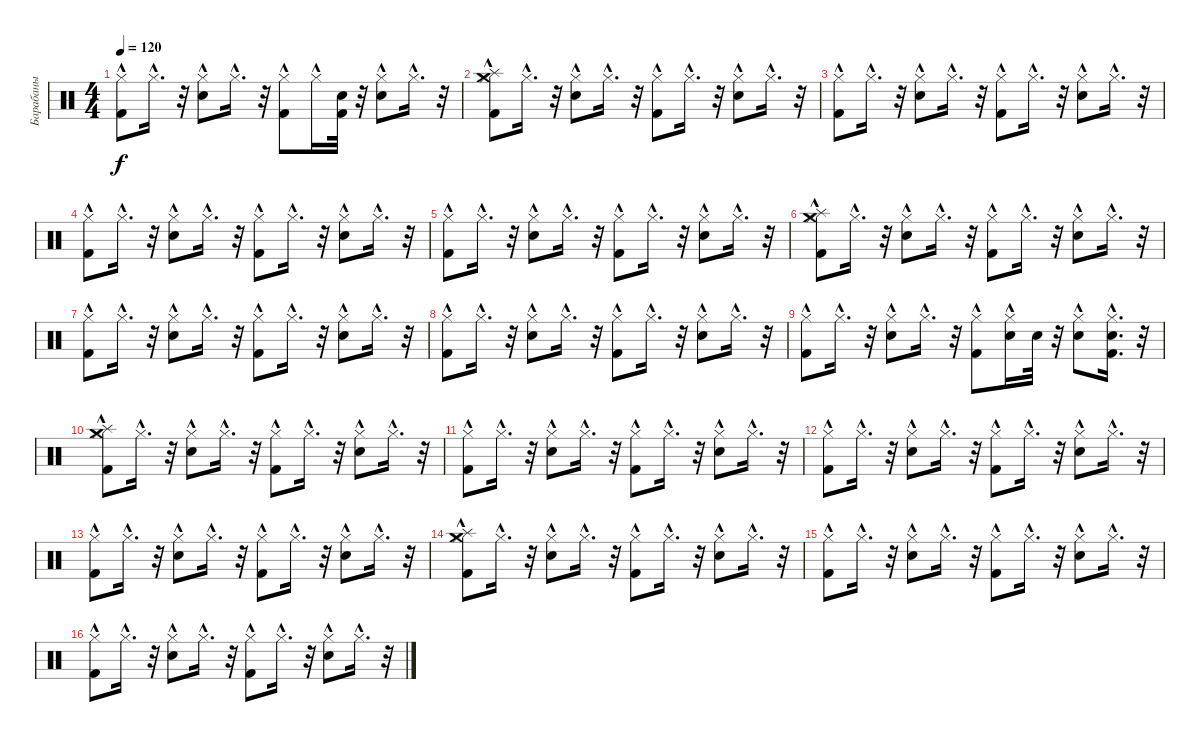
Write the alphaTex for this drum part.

\track ("Барабаны" "Барабаны") {instrument percussion}
\staff {score}
\articulation defaults
\ts (4 4)
\tempo 120
\clef neutral
\ks c
("Kick (hit) 2" "Hi-Hat (closed)"{hac}).8{dy f} "Hi-Hat (closed)"{hac}.16{d} r.32 ("Electric Snare (hit)" "Hi-Hat (closed)"{hac}).8 "Hi-Hat (closed)"{hac}.16{d} r.32 ("Kick (hit) 2" "Hi-Hat (closed)"{hac}).8 "Hi-Hat (closed)"{hac}.16 ("Electric Snare (hit)" "Kick (hit) 2").32 r.32 ("Electric Snare (hit)" "Hi-Hat (closed)"{hac}).8 "Hi-Hat (closed)"{hac}.16{d} r.32 |
("Crash medium (hit)" "Splash (hit)" "Kick (hit) 2" "Hi-Hat (closed)"{hac}).8 "Hi-Hat (closed)"{hac}.16{d} r.32 ("Electric Snare (hit)" "Hi-Hat (closed)"{hac}).8 "Hi-Hat (closed)"{hac}.16{d} r.32 ("Kick (hit) 2" "Hi-Hat (closed)"{hac}).8 "Hi-Hat (closed)"{hac}.16{d} r.32 ("Electric Snare (hit)" "Hi-Hat (closed)"{hac}).8 "Hi-Hat (closed)"{hac}.16{d} r.32 |
("Kick (hit) 2" "Hi-Hat (closed)"{hac}).8 "Hi-Hat (closed)"{hac}.16{d} r.32 ("Electric Snare (hit)" "Hi-Hat (closed)"{hac}).8 "Hi-Hat (closed)"{hac}.16{d} r.32 ("Kick (hit) 2" "Hi-Hat (closed)"{hac}).8 "Hi-Hat (closed)"{hac}.16{d} r.32 ("Electric Snare (hit)" "Hi-Hat (closed)"{hac}).8 "Hi-Hat (closed)"{hac}.16{d} r.32 |
("Kick (hit) 2" "Hi-Hat (closed)"{hac}).8 "Hi-Hat (closed)"{hac}.16{d} r.32 ("Electric Snare (hit)" "Hi-Hat (closed)"{hac}).8 "Hi-Hat (closed)"{hac}.16{d} r.32 ("Kick (hit) 2" "Hi-Hat (closed)"{hac}).8 "Hi-Hat (closed)"{hac}.16{d} r.32 ("Electric Snare (hit)" "Hi-Hat (closed)"{hac}).8 "Hi-Hat (closed)"{hac}.16{d} r.32 |
("Kick (hit) 2" "Hi-Hat (closed)"{hac}).8 "Hi-Hat (closed)"{hac}.16{d} r.32 ("Electric Snare (hit)" "Hi-Hat (closed)"{hac}).8 "Hi-Hat (closed)"{hac}.16{d} r.32 ("Kick (hit) 2" "Hi-Hat (closed)"{hac}).8 "Hi-Hat (closed)"{hac}.16{d} r.32 ("Electric Snare (hit)" "Hi-Hat (closed)"{hac}).8 "Hi-Hat (closed)"{hac}.16{d} r.32 |
("Crash medium (hit)" "Splash (hit)" "Kick (hit) 2" "Hi-Hat (closed)"{hac}).8 "Hi-Hat (closed)"{hac}.16{d} r.32 ("Electric Snare (hit)" "Hi-Hat (closed)"{hac}).8 "Hi-Hat (closed)"{hac}.16{d} r.32 ("Kick (hit) 2" "Hi-Hat (closed)"{hac}).8 "Hi-Hat (closed)"{hac}.16{d} r.32 ("Electric Snare (hit)" "Hi-Hat (closed)"{hac}).8 "Hi-Hat (closed)"{hac}.16{d} r.32 |
("Kick (hit) 2" "Hi-Hat (closed)"{hac}).8 "Hi-Hat (closed)"{hac}.16{d} r.32 ("Electric Snare (hit)" "Hi-Hat (closed)"{hac}).8 "Hi-Hat (closed)"{hac}.16{d} r.32 ("Kick (hit) 2" "Hi-Hat (closed)"{hac}).8 "Hi-Hat (closed)"{hac}.16{d} r.32 ("Electric Snare (hit)" "Hi-Hat (closed)"{hac}).8 "Hi-Hat (closed)"{hac}.16{d} r.32 |
("Kick (hit) 2" "Hi-Hat (closed)"{hac}).8 "Hi-Hat (closed)"{hac}.16{d} r.32 ("Electric Snare (hit)" "Hi-Hat (closed)"{hac}).8 "Hi-Hat (closed)"{hac}.16{d} r.32 ("Kick (hit) 2" "Hi-Hat (closed)"{hac}).8 "Hi-Hat (closed)"{hac}.16{d} r.32 ("Electric Snare (hit)" "Hi-Hat (closed)"{hac}).8 "Hi-Hat (closed)"{hac}.16{d} r.32 |
("Kick (hit) 2" "Hi-Hat (closed)"{hac}).8 "Hi-Hat (closed)"{hac}.16{d} r.32 ("Electric Snare (hit)" "Hi-Hat (closed)"{hac}).8 "Hi-Hat (closed)"{hac}.16{d} r.32 ("Kick (hit) 2" "Hi-Hat (closed)"{hac}).8 ("Electric Snare (hit)" "Hi-Hat (closed)"{hac}).16 "Snare (hit) 2".32 r.32 ("Electric Snare (hit)" "Hi-Hat (closed)"{hac}).8 ("Electric Snare (hit)" "Kick (hit) 2" "Hi-Hat (closed)"{hac}).16{d} r.32 |
("Crash medium (hit)" "Splash (hit)" "Kick (hit) 2" "Hi-Hat (closed)"{hac}).8 "Hi-Hat (closed)"{hac}.16{d} r.32 ("Electric Snare (hit)" "Hi-Hat (closed)"{hac}).8 "Hi-Hat (closed)"{hac}.16{d} r.32 ("Kick (hit) 2" "Hi-Hat (closed)"{hac}).8 "Hi-Hat (closed)"{hac}.16{d} r.32 ("Electric Snare (hit)" "Hi-Hat (closed)"{hac}).8 "Hi-Hat (closed)"{hac}.16{d} r.32 |
("Kick (hit) 2" "Hi-Hat (closed)"{hac}).8 "Hi-Hat (closed)"{hac}.16{d} r.32 ("Electric Snare (hit)" "Hi-Hat (closed)"{hac}).8 "Hi-Hat (closed)"{hac}.16{d} r.32 ("Kick (hit) 2" "Hi-Hat (closed)"{hac}).8 "Hi-Hat (closed)"{hac}.16{d} r.32 ("Electric Snare (hit)" "Hi-Hat (closed)"{hac}).8 "Hi-Hat (closed)"{hac}.16{d} r.32 |
("Kick (hit) 2" "Hi-Hat (closed)"{hac}).8 "Hi-Hat (closed)"{hac}.16{d} r.32 ("Electric Snare (hit)" "Hi-Hat (closed)"{hac}).8 "Hi-Hat (closed)"{hac}.16{d} r.32 ("Kick (hit) 2" "Hi-Hat (closed)"{hac}).8 "Hi-Hat (closed)"{hac}.16{d} r.32 ("Electric Snare (hit)" "Hi-Hat (closed)"{hac}).8 "Hi-Hat (closed)"{hac}.16{d} r.32 |
("Kick (hit) 2" "Hi-Hat (closed)"{hac}).8 "Hi-Hat (closed)"{hac}.16{d} r.32 ("Electric Snare (hit)" "Hi-Hat (closed)"{hac}).8 "Hi-Hat (closed)"{hac}.16{d} r.32 ("Kick (hit) 2" "Hi-Hat (closed)"{hac}).8 "Hi-Hat (closed)"{hac}.16{d} r.32 ("Electric Snare (hit)" "Hi-Hat (closed)"{hac}).8 "Hi-Hat (closed)"{hac}.16{d} r.32 |
("Crash medium (hit)" "Splash (hit)" "Kick (hit) 2" "Hi-Hat (closed)"{hac}).8 "Hi-Hat (closed)"{hac}.16{d} r.32 ("Electric Snare (hit)" "Hi-Hat (closed)"{hac}).8 "Hi-Hat (closed)"{hac}.16{d} r.32 ("Kick (hit) 2" "Hi-Hat (closed)"{hac}).8 "Hi-Hat (closed)"{hac}.16{d} r.32 ("Electric Snare (hit)" "Hi-Hat (closed)"{hac}).8 "Hi-Hat (closed)"{hac}.16{d} r.32 |
("Kick (hit) 2" "Hi-Hat (closed)"{hac}).8 "Hi-Hat (closed)"{hac}.16{d} r.32 ("Electric Snare (hit)" "Hi-Hat (closed)"{hac}).8 "Hi-Hat (closed)"{hac}.16{d} r.32 ("Kick (hit) 2" "Hi-Hat (closed)"{hac}).8 "Hi-Hat (closed)"{hac}.16{d} r.32 ("Electric Snare (hit)" "Hi-Hat (closed)"{hac}).8 "Hi-Hat (closed)"{hac}.16{d} r.32 |
("Kick (hit) 2" "Hi-Hat (closed)"{hac}).8 "Hi-Hat (closed)"{hac}.16{d} r.32 ("Electric Snare (hit)" "Hi-Hat (closed)"{hac}).8 "Hi-Hat (closed)"{hac}.16{d} r.32 ("Kick (hit) 2" "Hi-Hat (closed)"{hac}).8 "Hi-Hat (closed)"{hac}.16{d} r.32 ("Electric Snare (hit)" "Hi-Hat (closed)"{hac}).8 "Hi-Hat (closed)"{hac}.16{d} r.32
